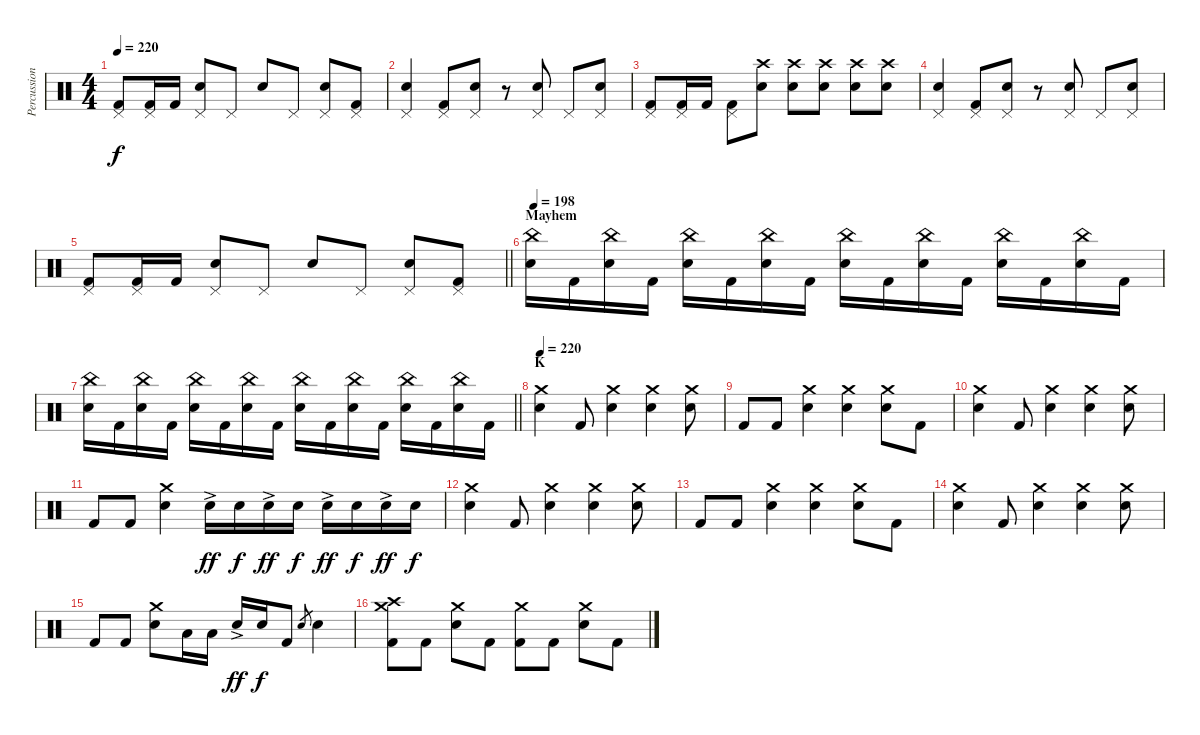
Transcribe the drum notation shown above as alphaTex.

\track ("Percussion" "Percussion") {instrument percussion}
\staff {score}
\articulation defaults
\ts (4 4)
\tempo 220
\clef neutral
\ks c
("Pedal Hi-Hat (hit)" "Kick (hit) 2").8{dy f} ("Pedal Hi-Hat (hit)" "Kick (hit) 2").16 "Kick (hit) 2".16 ("Pedal Hi-Hat (hit)" "Electric Snare (hit)").8 "Pedal Hi-Hat (hit)".8 "Electric Snare (hit)".8 "Pedal Hi-Hat (hit)".8 ("Pedal Hi-Hat (hit)" "Electric Snare (hit)").8 ("Pedal Hi-Hat (hit)" "Kick (hit) 2").8 |
("Pedal Hi-Hat (hit)" "Electric Snare (hit)").4 ("Pedal Hi-Hat (hit)" "Kick (hit) 2").8 ("Pedal Hi-Hat (hit)" "Electric Snare (hit)").8 r.8 ("Pedal Hi-Hat (hit)" "Electric Snare (hit)").8 "Pedal Hi-Hat (hit)".8 ("Pedal Hi-Hat (hit)" "Electric Snare (hit)").8 |
("Pedal Hi-Hat (hit)" "Kick (hit) 2").8 ("Pedal Hi-Hat (hit)" "Kick (hit) 2").16 "Kick (hit) 2".16 ("Pedal Hi-Hat (hit)" "Kick (hit) 2").8 ("Crash high (hit)" "Electric Snare (hit)").8 ("Crash high (hit)" "Electric Snare (hit)").8 ("Crash high (hit)" "Electric Snare (hit)").8 ("Crash high (hit)" "Electric Snare (hit)").8 ("Crash high (hit)" "Electric Snare (hit)").8 |
("Pedal Hi-Hat (hit)" "Electric Snare (hit)").4 ("Pedal Hi-Hat (hit)" "Kick (hit) 2").8 ("Pedal Hi-Hat (hit)" "Electric Snare (hit)").8 r.8 ("Pedal Hi-Hat (hit)" "Electric Snare (hit)").8 "Pedal Hi-Hat (hit)".8 ("Pedal Hi-Hat (hit)" "Electric Snare (hit)").8 |
\barLineRight lightlight
("Pedal Hi-Hat (hit)" "Kick (hit) 2").8 ("Pedal Hi-Hat (hit)" "Kick (hit) 2").16 "Kick (hit) 2".16 ("Pedal Hi-Hat (hit)" "Electric Snare (hit)").8 "Pedal Hi-Hat (hit)".8 "Electric Snare (hit)".8 "Pedal Hi-Hat (hit)".8 ("Pedal Hi-Hat (hit)" "Electric Snare (hit)").8 ("Pedal Hi-Hat (hit)" "Kick (hit) 2").8 |
\section ("" "Mayhem")
\tempo 198
("China (hit)" "Electric Snare (hit)").16 "Kick (hit) 2".16 ("China (hit)" "Electric Snare (hit)").16 "Kick (hit) 2".16 ("China (hit)" "Electric Snare (hit)").16 "Kick (hit) 2".16 ("China (hit)" "Electric Snare (hit)").16 "Kick (hit) 2".16 ("China (hit)" "Electric Snare (hit)").16 "Kick (hit) 2".16 ("China (hit)" "Electric Snare (hit)").16 "Kick (hit) 2".16 ("China (hit)" "Electric Snare (hit)").16 "Kick (hit) 2".16 ("China (hit)" "Electric Snare (hit)").16 "Kick (hit) 2".16 |
\barLineRight lightlight
("China (hit)" "Electric Snare (hit)").16 "Kick (hit) 2".16 ("China (hit)" "Electric Snare (hit)").16 "Kick (hit) 2".16 ("China (hit)" "Electric Snare (hit)").16 "Kick (hit) 2".16 ("China (hit)" "Electric Snare (hit)").16 "Kick (hit) 2".16 ("China (hit)" "Electric Snare (hit)").16 "Kick (hit) 2".16 ("China (hit)" "Electric Snare (hit)").16 "Kick (hit) 2".16 ("China (hit)" "Electric Snare (hit)").16 "Kick (hit) 2".16 ("China (hit)" "Electric Snare (hit)").16 "Kick (hit) 2".16 |
\section ("" "K")
\tempo 220
("Crash medium (hit)" "Electric Snare (hit)").4 "Kick (hit) 2".8 ("Crash medium (hit)" "Electric Snare (hit)").4 ("Crash medium (hit)" "Electric Snare (hit)").4 ("Crash medium (hit)" "Electric Snare (hit)").8 |
"Kick (hit) 2".8 "Kick (hit) 2".8 ("Crash medium (hit)" "Electric Snare (hit)").4 ("Crash medium (hit)" "Electric Snare (hit)").4 ("Crash medium (hit)" "Electric Snare (hit)").8 "Kick (hit) 2".8 |
("Crash medium (hit)" "Electric Snare (hit)").4 "Kick (hit) 2".8 ("Crash medium (hit)" "Electric Snare (hit)").4 ("Crash medium (hit)" "Electric Snare (hit)").4 ("Crash medium (hit)" "Electric Snare (hit)").8 |
"Kick (hit) 2".8 "Kick (hit) 2".8 ("Crash medium (hit)" "Electric Snare (hit)").4 "Electric Snare (hit)"{ac}.16{dy ff} "Electric Snare (hit)".16{dy f} "Electric Snare (hit)"{ac}.16{dy ff} "Electric Snare (hit)".16{dy f} "Electric Snare (hit)"{ac}.16{dy ff} "Electric Snare (hit)".16{dy f} "Electric Snare (hit)"{ac}.16{dy ff} "Electric Snare (hit)".16{dy f} |
("Crash medium (hit)" "Electric Snare (hit)").4 "Kick (hit) 2".8 ("Crash medium (hit)" "Electric Snare (hit)").4 ("Crash medium (hit)" "Electric Snare (hit)").4 ("Crash medium (hit)" "Electric Snare (hit)").8 |
"Kick (hit) 2".8 "Kick (hit) 2".8 ("Crash medium (hit)" "Electric Snare (hit)").4 ("Crash medium (hit)" "Electric Snare (hit)").4 ("Crash medium (hit)" "Electric Snare (hit)").8 "Kick (hit) 2".8 |
("Crash medium (hit)" "Electric Snare (hit)").4 "Kick (hit) 2".8 ("Crash medium (hit)" "Electric Snare (hit)").4 ("Crash medium (hit)" "Electric Snare (hit)").4 ("Crash medium (hit)" "Electric Snare (hit)").8 |
"Kick (hit) 2".8 "Kick (hit) 2".8 ("Crash medium (hit)" "Electric Snare (hit)").8 "Low Tom (hit)".16 "Low Tom (hit)".16 "Electric Snare (hit)"{ac}.16{dy ff} "Electric Snare (hit)".16{dy f} "Kick (hit) 2".8 "Electric Snare (hit)".8{gr} "Electric Snare (hit)".4 |
("Crash medium (hit)" "Crash high (hit)" "Kick (hit) 2").8 "Kick (hit) 2".8 ("Crash medium (hit)" "Electric Snare (hit)").8 "Kick (hit) 2".8 ("Crash medium (hit)" "Kick (hit) 2").8 "Kick (hit) 2".8 ("Crash medium (hit)" "Electric Snare (hit)").8 "Kick (hit) 2".8
